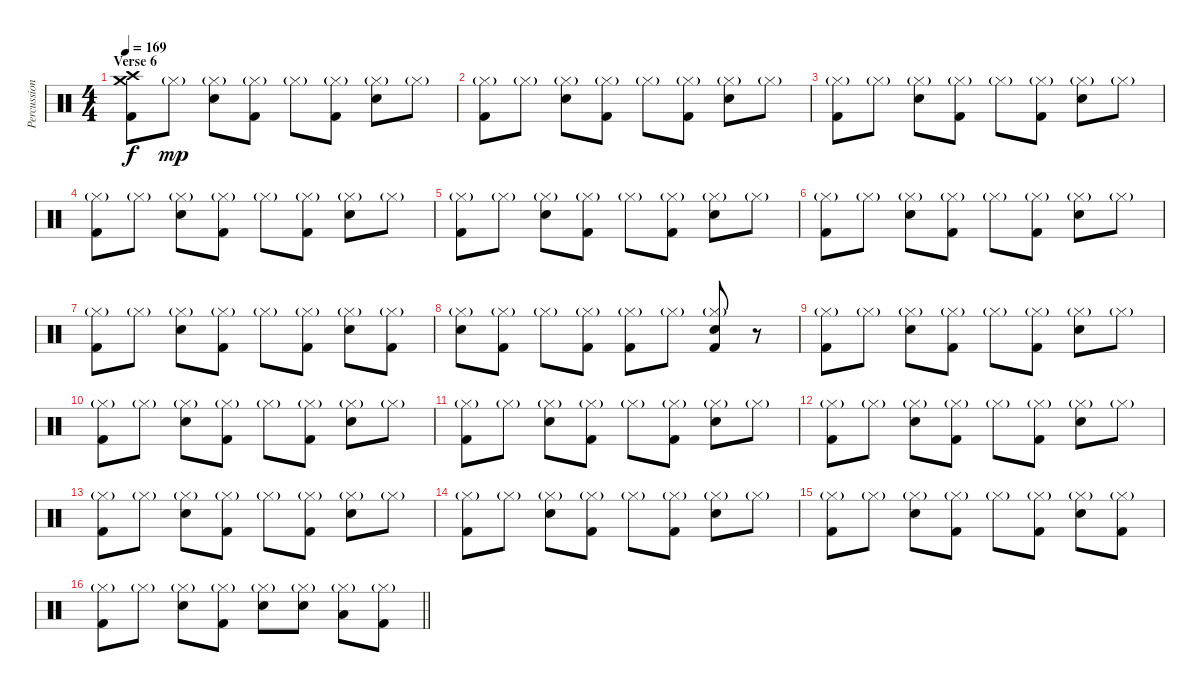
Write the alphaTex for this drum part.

\track ("Percussion" "Percussion") {instrument percussion}
\staff {score}
\articulation defaults
\ts (4 4)
\section ("" "Verse 6")
\tempo 169
\clef neutral
\ks c
("Crash high (hit)" "Crash medium (hit)" "Kick (hit) 2").8{dy f} "Hi-Hat (closed)"{g}.8{dy mp} ("Hi-Hat (closed)"{g} "Snare (hit) 2").8 ("Hi-Hat (closed)"{g} "Kick (hit) 2").8 "Hi-Hat (closed)"{g}.8 ("Hi-Hat (closed)"{g} "Kick (hit) 2").8 ("Hi-Hat (closed)"{g} "Snare (hit) 2").8 "Hi-Hat (closed)"{g}.8 |
("Hi-Hat (closed)"{g} "Kick (hit) 2").8 "Hi-Hat (closed)"{g}.8 ("Hi-Hat (closed)"{g} "Snare (hit) 2").8 ("Hi-Hat (closed)"{g} "Kick (hit) 2").8 "Hi-Hat (closed)"{g}.8 ("Hi-Hat (closed)"{g} "Kick (hit) 2").8 ("Hi-Hat (closed)"{g} "Snare (hit) 2").8 "Hi-Hat (closed)"{g}.8 |
("Hi-Hat (closed)"{g} "Kick (hit) 2").8 "Hi-Hat (closed)"{g}.8 ("Hi-Hat (closed)"{g} "Snare (hit) 2").8 ("Hi-Hat (closed)"{g} "Kick (hit) 2").8 "Hi-Hat (closed)"{g}.8 ("Hi-Hat (closed)"{g} "Kick (hit) 2").8 ("Hi-Hat (closed)"{g} "Snare (hit) 2").8 "Hi-Hat (closed)"{g}.8 |
("Hi-Hat (closed)"{g} "Kick (hit) 2").8 "Hi-Hat (closed)"{g}.8 ("Hi-Hat (closed)"{g} "Snare (hit) 2").8 ("Hi-Hat (closed)"{g} "Kick (hit) 2").8 "Hi-Hat (closed)"{g}.8 ("Hi-Hat (closed)"{g} "Kick (hit) 2").8 ("Hi-Hat (closed)"{g} "Snare (hit) 2").8 "Hi-Hat (closed)"{g}.8 |
("Hi-Hat (closed)"{g} "Kick (hit) 2").8 "Hi-Hat (closed)"{g}.8 ("Hi-Hat (closed)"{g} "Snare (hit) 2").8 ("Hi-Hat (closed)"{g} "Kick (hit) 2").8 "Hi-Hat (closed)"{g}.8 ("Hi-Hat (closed)"{g} "Kick (hit) 2").8 ("Hi-Hat (closed)"{g} "Snare (hit) 2").8 "Hi-Hat (closed)"{g}.8 |
("Hi-Hat (closed)"{g} "Kick (hit) 2").8 "Hi-Hat (closed)"{g}.8 ("Hi-Hat (closed)"{g} "Snare (hit) 2").8 ("Hi-Hat (closed)"{g} "Kick (hit) 2").8 "Hi-Hat (closed)"{g}.8 ("Hi-Hat (closed)"{g} "Kick (hit) 2").8 ("Hi-Hat (closed)"{g} "Snare (hit) 2").8 "Hi-Hat (closed)"{g}.8 |
("Hi-Hat (closed)"{g} "Kick (hit) 2").8 "Hi-Hat (closed)"{g}.8 ("Hi-Hat (closed)"{g} "Snare (hit) 2").8 ("Hi-Hat (closed)"{g} "Kick (hit) 2").8 "Hi-Hat (closed)"{g}.8 ("Hi-Hat (closed)"{g} "Kick (hit) 2").8 ("Hi-Hat (closed)"{g} "Snare (hit) 2").8 ("Hi-Hat (closed)"{g} "Kick (hit) 2").8 |
("Hi-Hat (closed)"{g} "Snare (hit) 2").8 ("Hi-Hat (closed)"{g} "Kick (hit) 2").8 "Hi-Hat (closed)"{g}.8 ("Hi-Hat (closed)"{g} "Kick (hit) 2").8 ("Hi-Hat (closed)"{g} "Kick (hit) 2").8 "Hi-Hat (closed)"{g}.8 ("Hi-Hat (closed)"{g} "Snare (hit) 2" "Kick (hit) 2").8 r.8 |
("Hi-Hat (closed)"{g} "Kick (hit) 2").8 "Hi-Hat (closed)"{g}.8 ("Hi-Hat (closed)"{g} "Snare (hit) 2").8 ("Hi-Hat (closed)"{g} "Kick (hit) 2").8 "Hi-Hat (closed)"{g}.8 ("Hi-Hat (closed)"{g} "Kick (hit) 2").8 ("Hi-Hat (closed)"{g} "Snare (hit) 2").8 "Hi-Hat (closed)"{g}.8 |
("Hi-Hat (closed)"{g} "Kick (hit) 2").8 "Hi-Hat (closed)"{g}.8 ("Hi-Hat (closed)"{g} "Snare (hit) 2").8 ("Hi-Hat (closed)"{g} "Kick (hit) 2").8 "Hi-Hat (closed)"{g}.8 ("Hi-Hat (closed)"{g} "Kick (hit) 2").8 ("Hi-Hat (closed)"{g} "Snare (hit) 2").8 "Hi-Hat (closed)"{g}.8 |
("Hi-Hat (closed)"{g} "Kick (hit) 2").8 "Hi-Hat (closed)"{g}.8 ("Hi-Hat (closed)"{g} "Snare (hit) 2").8 ("Hi-Hat (closed)"{g} "Kick (hit) 2").8 "Hi-Hat (closed)"{g}.8 ("Hi-Hat (closed)"{g} "Kick (hit) 2").8 ("Hi-Hat (closed)"{g} "Snare (hit) 2").8 "Hi-Hat (closed)"{g}.8 |
("Hi-Hat (closed)"{g} "Kick (hit) 2").8 "Hi-Hat (closed)"{g}.8 ("Hi-Hat (closed)"{g} "Snare (hit) 2").8 ("Hi-Hat (closed)"{g} "Kick (hit) 2").8 "Hi-Hat (closed)"{g}.8 ("Hi-Hat (closed)"{g} "Kick (hit) 2").8 ("Hi-Hat (closed)"{g} "Snare (hit) 2").8 "Hi-Hat (closed)"{g}.8 |
("Hi-Hat (closed)"{g} "Kick (hit) 2").8 "Hi-Hat (closed)"{g}.8 ("Hi-Hat (closed)"{g} "Snare (hit) 2").8 ("Hi-Hat (closed)"{g} "Kick (hit) 2").8 "Hi-Hat (closed)"{g}.8 ("Hi-Hat (closed)"{g} "Kick (hit) 2").8 ("Hi-Hat (closed)"{g} "Snare (hit) 2").8 "Hi-Hat (closed)"{g}.8 |
("Hi-Hat (closed)"{g} "Kick (hit) 2").8 "Hi-Hat (closed)"{g}.8 ("Hi-Hat (closed)"{g} "Snare (hit) 2").8 ("Hi-Hat (closed)"{g} "Kick (hit) 2").8 "Hi-Hat (closed)"{g}.8 ("Hi-Hat (closed)"{g} "Kick (hit) 2").8 ("Hi-Hat (closed)"{g} "Snare (hit) 2").8 "Hi-Hat (closed)"{g}.8 |
("Hi-Hat (closed)"{g} "Kick (hit) 2").8 "Hi-Hat (closed)"{g}.8 ("Hi-Hat (closed)"{g} "Snare (hit) 2").8 ("Hi-Hat (closed)"{g} "Kick (hit) 2").8 "Hi-Hat (closed)"{g}.8 ("Hi-Hat (closed)"{g} "Kick (hit) 2").8 ("Hi-Hat (closed)"{g} "Snare (hit) 2").8 ("Hi-Hat (closed)"{g} "Kick (hit) 2").8 |
\barLineRight lightlight
("Hi-Hat (closed)"{g} "Kick (hit) 2").8 "Hi-Hat (closed)"{g}.8 ("Hi-Hat (closed)"{g} "Snare (hit) 2").8 ("Hi-Hat (closed)"{g} "Kick (hit) 2").8 ("Hi-Hat (closed)"{g} "Snare (hit) 2").8 ("Hi-Hat (closed)"{g} "Snare (hit) 2").8 ("Hi-Hat (closed)"{g} "Low Tom (hit)").8 ("Hi-Hat (closed)"{g} "Kick (hit) 2").8
